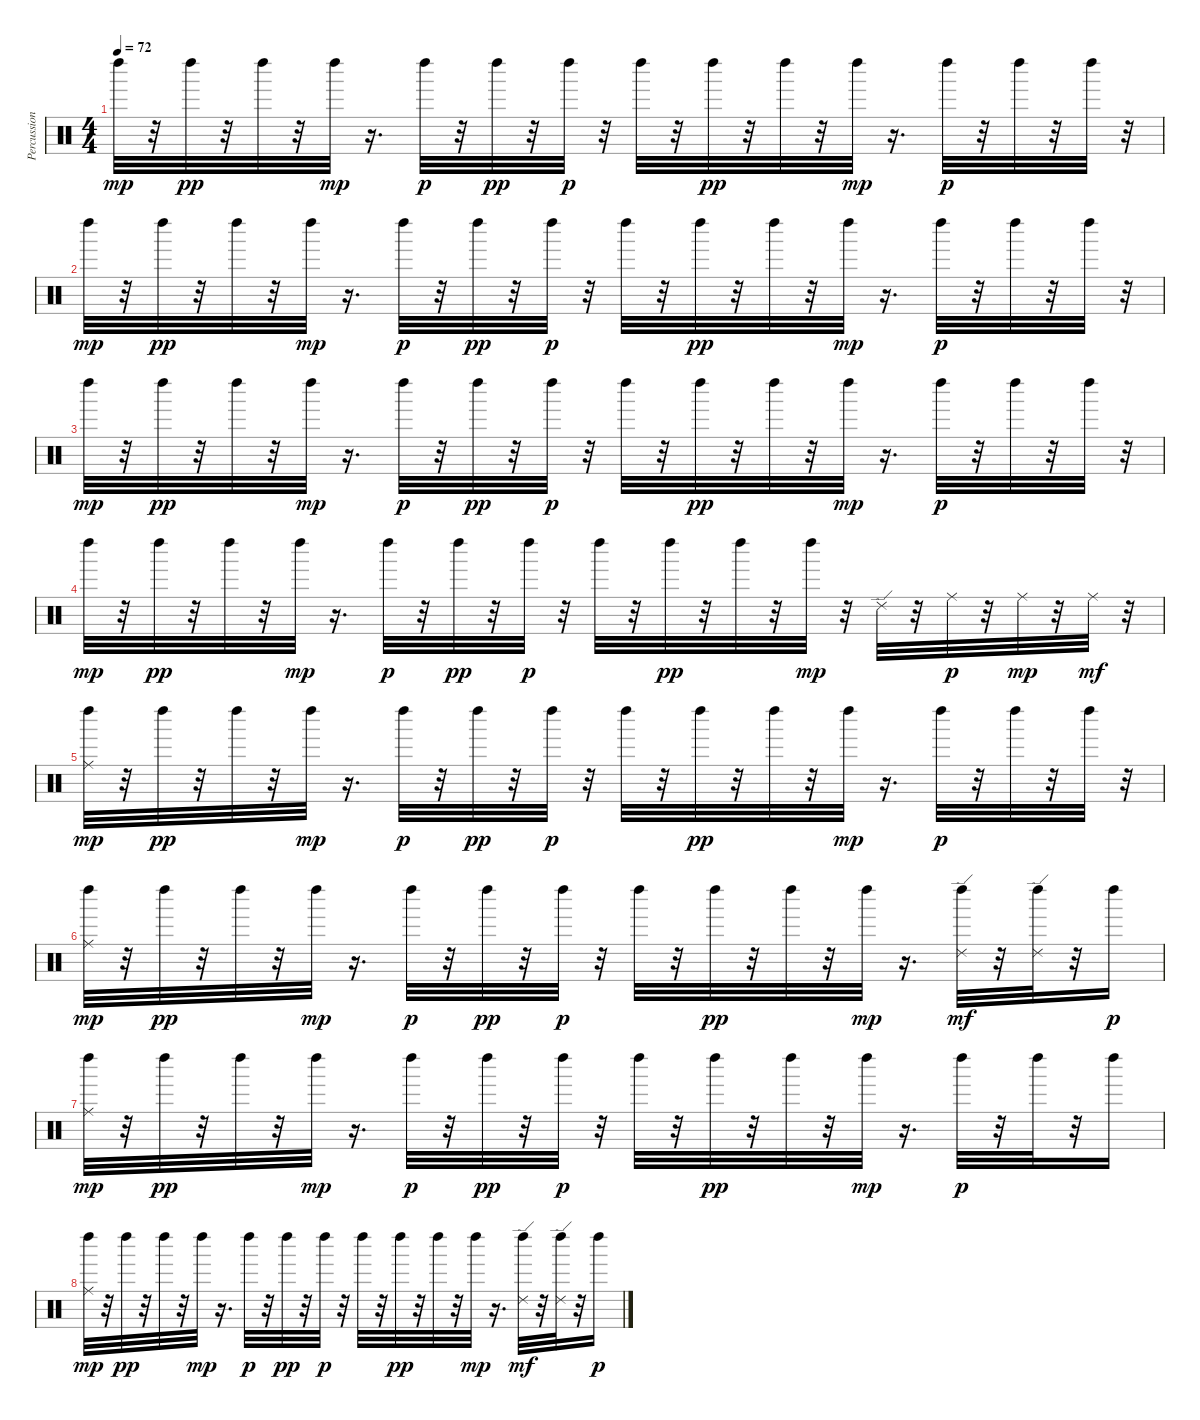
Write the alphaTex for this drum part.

\track ("Percussion" "Percussion") {instrument percussion}
\staff {score}
\articulation defaults
\ts (4 4)
\tempo 72
\clef neutral
\ks c "Left Maraca (hit)".32{dy mp}
r.32 "Left Maraca (hit)".32{dy pp} r.32 "Left Maraca (hit)".32 r.32 "Left Maraca (hit)".32{dy mp} r.16{d} "Left Maraca (hit)".32{dy p} r.32 "Left Maraca (hit)".32{dy pp} r.32 "Left Maraca (hit)".32{dy p} r.32 "Left Maraca (hit)".32 r.32 "Left Maraca (hit)".32{dy pp} r.32 "Left Maraca (hit)".32 r.32 "Left Maraca (hit)".32{dy mp} r.16{d} "Left Maraca (hit)".32{dy p} r.32 "Left Maraca (hit)".32 r.32 "Left Maraca (hit)".32 r.32 |
"Left Maraca (hit)".32{dy mp} r.32 "Left Maraca (hit)".32{dy pp} r.32 "Left Maraca (hit)".32 r.32 "Left Maraca (hit)".32{dy mp} r.16{d} "Left Maraca (hit)".32{dy p} r.32 "Left Maraca (hit)".32{dy pp} r.32 "Left Maraca (hit)".32{dy p} r.32 "Left Maraca (hit)".32 r.32 "Left Maraca (hit)".32{dy pp} r.32 "Left Maraca (hit)".32 r.32 "Left Maraca (hit)".32{dy mp} r.16{d} "Left Maraca (hit)".32{dy p} r.32 "Left Maraca (hit)".32 r.32 "Left Maraca (hit)".32 r.32 |
"Left Maraca (hit)".32{dy mp} r.32 "Left Maraca (hit)".32{dy pp} r.32 "Left Maraca (hit)".32 r.32 "Left Maraca (hit)".32{dy mp} r.16{d} "Left Maraca (hit)".32{dy p} r.32 "Left Maraca (hit)".32{dy pp} r.32 "Left Maraca (hit)".32{dy p} r.32 "Left Maraca (hit)".32 r.32 "Left Maraca (hit)".32{dy pp} r.32 "Left Maraca (hit)".32 r.32 "Left Maraca (hit)".32{dy mp} r.16{d} "Left Maraca (hit)".32{dy p} r.32 "Left Maraca (hit)".32 r.32 "Left Maraca (hit)".32 r.32 |
"Left Maraca (hit)".32{dy mp} r.32 "Left Maraca (hit)".32{dy pp} r.32 "Left Maraca (hit)".32 r.32 "Left Maraca (hit)".32{dy mp} r.16{d} "Left Maraca (hit)".32{dy p} r.32 "Left Maraca (hit)".32{dy pp} r.32 "Left Maraca (hit)".32{dy p} r.32 "Left Maraca (hit)".32 r.32 "Left Maraca (hit)".32{dy pp} r.32 "Left Maraca (hit)".32 r.32 "Left Maraca (hit)".32{dy mp} r.32 "Ride (edge) 2".32 r.32 "Ride (middle)".32{dy p} r.32 "Ride (middle)".32{dy mp} r.32 "Ride (middle)".32{dy mf} r.32 |
("Left Maraca (hit)" "Ride (middle)").32{dy mp} r.32 "Left Maraca (hit)".32{dy pp} r.32 "Left Maraca (hit)".32 r.32 "Left Maraca (hit)".32{dy mp} r.16{d} "Left Maraca (hit)".32{dy p} r.32 "Left Maraca (hit)".32{dy pp} r.32 "Left Maraca (hit)".32{dy p} r.32 "Left Maraca (hit)".32 r.32 "Left Maraca (hit)".32{dy pp} r.32 "Left Maraca (hit)".32 r.32 "Left Maraca (hit)".32{dy mp} r.16{d} "Left Maraca (hit)".32{dy p} r.32 "Left Maraca (hit)".32 r.32 "Left Maraca (hit)".32 r.32 |
("Left Maraca (hit)" "Ride (middle)").32{dy mp} r.32 "Left Maraca (hit)".32{dy pp} r.32 "Left Maraca (hit)".32 r.32 "Left Maraca (hit)".32{dy mp} r.16{d} "Left Maraca (hit)".32{dy p} r.32 "Left Maraca (hit)".32{dy pp} r.32 "Left Maraca (hit)".32{dy p} r.32 "Left Maraca (hit)".32 r.32 "Left Maraca (hit)".32{dy pp} r.32 "Left Maraca (hit)".32 r.32 "Left Maraca (hit)".32{dy mp} r.16{d} ("Left Maraca (hit)" "Ride (edge) 2").32{dy mf} r.32 ("Left Maraca (hit)" "Ride (edge) 2").32 r.32 "Left Maraca (hit)".16{dy p} |
("Left Maraca (hit)" "Ride (middle)").32{dy mp} r.32 "Left Maraca (hit)".32{dy pp} r.32 "Left Maraca (hit)".32 r.32 "Left Maraca (hit)".32{dy mp} r.16{d} "Left Maraca (hit)".32{dy p} r.32 "Left Maraca (hit)".32{dy pp} r.32 "Left Maraca (hit)".32{dy p} r.32 "Left Maraca (hit)".32 r.32 "Left Maraca (hit)".32{dy pp} r.32 "Left Maraca (hit)".32 r.32 "Left Maraca (hit)".32{dy mp} r.16{d} "Left Maraca (hit)".32{dy p} r.32 "Left Maraca (hit)".32 r.32 "Left Maraca (hit)".16 |
("Left Maraca (hit)" "Ride (middle)").32{dy mp} r.32 "Left Maraca (hit)".32{dy pp} r.32 "Left Maraca (hit)".32 r.32 "Left Maraca (hit)".32{dy mp} r.16{d} "Left Maraca (hit)".32{dy p} r.32 "Left Maraca (hit)".32{dy pp} r.32 "Left Maraca (hit)".32{dy p} r.32 "Left Maraca (hit)".32 r.32 "Left Maraca (hit)".32{dy pp} r.32 "Left Maraca (hit)".32 r.32 "Left Maraca (hit)".32{dy mp} r.16{d} ("Left Maraca (hit)" "Ride (edge) 2").32{dy mf} r.32 ("Left Maraca (hit)" "Ride (edge) 2").32 r.32 "Left Maraca (hit)".16{dy p}
